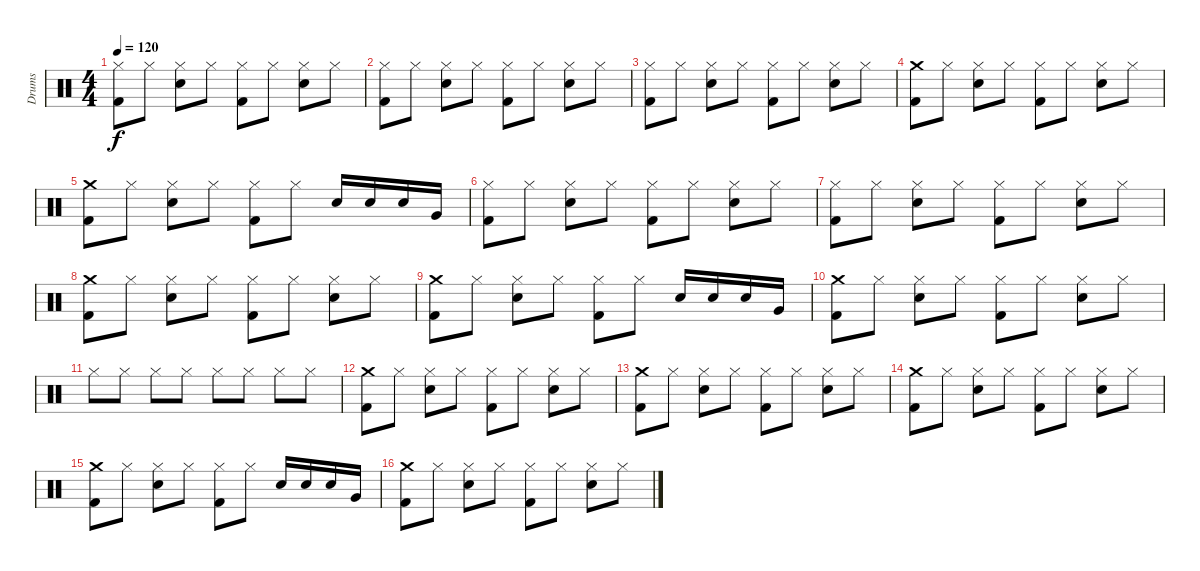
\track ("Drums" "Drums") {instrument percussion}
\staff {score}
\articulation defaults
\ts (4 4)
\tempo 120
\clef neutral
\ks c
("Hi-Hat (closed)" "Kick (hit) 2").8{dy f} "Hi-Hat (closed)".8 ("Hi-Hat (closed)" "Snare (hit) 2").8 "Hi-Hat (closed)".8 ("Hi-Hat (closed)" "Kick (hit) 2").8 "Hi-Hat (closed)".8 ("Hi-Hat (closed)" "Snare (hit) 2").8 "Hi-Hat (closed)".8 |
("Hi-Hat (closed)" "Kick (hit) 2").8 "Hi-Hat (closed)".8 ("Hi-Hat (closed)" "Snare (hit) 2").8 "Hi-Hat (closed)".8 ("Hi-Hat (closed)" "Kick (hit) 2").8 "Hi-Hat (closed)".8 ("Hi-Hat (closed)" "Snare (hit) 2").8 "Hi-Hat (closed)".8 |
("Hi-Hat (closed)" "Kick (hit) 2").8 "Hi-Hat (closed)".8 ("Hi-Hat (closed)" "Snare (hit) 2").8 "Hi-Hat (closed)".8 ("Hi-Hat (closed)" "Kick (hit) 2").8 "Hi-Hat (closed)".8 ("Hi-Hat (closed)" "Snare (hit) 2").8 "Hi-Hat (closed)".8 |
("Crash medium (hit)" "Kick (hit) 2").8 "Hi-Hat (closed)".8 ("Hi-Hat (closed)" "Snare (hit) 2").8 "Hi-Hat (closed)".8 ("Hi-Hat (closed)" "Kick (hit) 2").8 "Hi-Hat (closed)".8 ("Hi-Hat (closed)" "Snare (hit) 2").8 "Hi-Hat (closed)".8 |
("Crash medium (hit)" "Kick (hit) 2").8 "Hi-Hat (closed)".8 ("Hi-Hat (closed)" "Snare (hit) 2").8 "Hi-Hat (closed)".8 ("Hi-Hat (closed)" "Kick (hit) 2").8 "Hi-Hat (closed)".8 "Snare (hit) 2".16 "Snare (hit) 2".16 "Snare (hit) 2".16 "Very Low Tom (hit)".16 |
("Hi-Hat (closed)" "Kick (hit) 2").8 "Hi-Hat (closed)".8 ("Hi-Hat (closed)" "Snare (hit) 2").8 "Hi-Hat (closed)".8 ("Hi-Hat (closed)" "Kick (hit) 2").8 "Hi-Hat (closed)".8 ("Hi-Hat (closed)" "Snare (hit) 2").8 "Hi-Hat (closed)".8 |
("Hi-Hat (closed)" "Kick (hit) 2").8 "Hi-Hat (closed)".8 ("Hi-Hat (closed)" "Snare (hit) 2").8 "Hi-Hat (closed)".8 ("Hi-Hat (closed)" "Kick (hit) 2").8 "Hi-Hat (closed)".8 ("Hi-Hat (closed)" "Snare (hit) 2").8 "Hi-Hat (closed)".8 |
("Crash medium (hit)" "Kick (hit) 2").8 "Hi-Hat (closed)".8 ("Hi-Hat (closed)" "Snare (hit) 2").8 "Hi-Hat (closed)".8 ("Hi-Hat (closed)" "Kick (hit) 2").8 "Hi-Hat (closed)".8 ("Hi-Hat (closed)" "Snare (hit) 2").8 "Hi-Hat (closed)".8 |
("Crash medium (hit)" "Kick (hit) 2").8 "Hi-Hat (closed)".8 ("Hi-Hat (closed)" "Snare (hit) 2").8 "Hi-Hat (closed)".8 ("Hi-Hat (closed)" "Kick (hit) 2").8 "Hi-Hat (closed)".8 "Snare (hit) 2".16 "Snare (hit) 2".16 "Snare (hit) 2".16 "Very Low Tom (hit)".16 |
("Crash medium (hit)" "Kick (hit) 2").8 "Hi-Hat (closed)".8 ("Hi-Hat (closed)" "Snare (hit) 2").8 "Hi-Hat (closed)".8 ("Hi-Hat (closed)" "Kick (hit) 2").8 "Hi-Hat (closed)".8 ("Hi-Hat (closed)" "Snare (hit) 2").8 "Hi-Hat (closed)".8 |
"Hi-Hat (closed)".8 "Hi-Hat (closed)".8 "Hi-Hat (closed)".8 "Hi-Hat (closed)".8 "Hi-Hat (closed)".8 "Hi-Hat (closed)".8 "Hi-Hat (closed)".8 "Hi-Hat (closed)".8 |
("Crash medium (hit)" "Kick (hit) 2").8 "Hi-Hat (closed)".8 ("Hi-Hat (closed)" "Snare (hit) 2").8 "Hi-Hat (closed)".8 ("Hi-Hat (closed)" "Kick (hit) 2").8 "Hi-Hat (closed)".8 ("Hi-Hat (closed)" "Snare (hit) 2").8 "Hi-Hat (closed)".8 |
("Crash medium (hit)" "Kick (hit) 2").8 "Hi-Hat (closed)".8 ("Hi-Hat (closed)" "Snare (hit) 2").8 "Hi-Hat (closed)".8 ("Hi-Hat (closed)" "Kick (hit) 2").8 "Hi-Hat (closed)".8 ("Hi-Hat (closed)" "Snare (hit) 2").8 "Hi-Hat (closed)".8 |
("Crash medium (hit)" "Kick (hit) 2").8 "Hi-Hat (closed)".8 ("Hi-Hat (closed)" "Snare (hit) 2").8 "Hi-Hat (closed)".8 ("Hi-Hat (closed)" "Kick (hit) 2").8 "Hi-Hat (closed)".8 ("Hi-Hat (closed)" "Snare (hit) 2").8 "Hi-Hat (closed)".8 |
("Crash medium (hit)" "Kick (hit) 2").8 "Hi-Hat (closed)".8 ("Hi-Hat (closed)" "Snare (hit) 2").8 "Hi-Hat (closed)".8 ("Hi-Hat (closed)" "Kick (hit) 2").8 "Hi-Hat (closed)".8 "Snare (hit) 2".16 "Snare (hit) 2".16 "Snare (hit) 2".16 "Very Low Tom (hit)".16 |
("Crash medium (hit)" "Kick (hit) 2").8 "Hi-Hat (closed)".8 ("Hi-Hat (closed)" "Snare (hit) 2").8 "Hi-Hat (closed)".8 ("Hi-Hat (closed)" "Kick (hit) 2").8 "Hi-Hat (closed)".8 ("Hi-Hat (closed)" "Snare (hit) 2").8 "Hi-Hat (closed)".8
